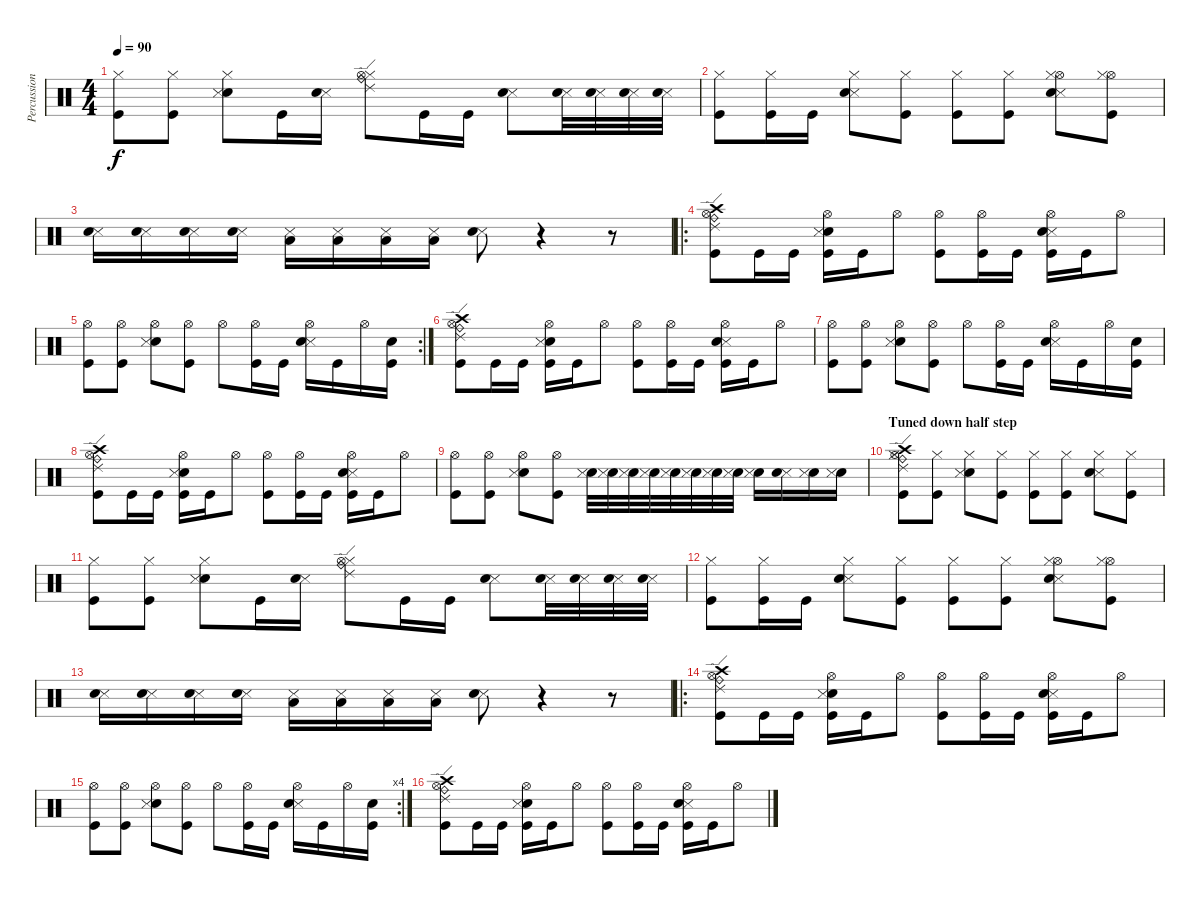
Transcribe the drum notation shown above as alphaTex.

\track ("Percussion" "Percussion") {instrument percussion}
\staff {score}
\articulation defaults
\ts (4 4)
\tempo 90
\clef neutral
\ks c
("Hi-Hat (closed)" "Kick (hit)").8{dy f} ("Hi-Hat (closed)" "Kick (hit)").8 ("Hi-Hat (closed)" "Electric Snare (hit)" "Snare (side stick) 3").8 "Kick (hit)".16 ("Snare (side stick) 3" "Electric Snare (hit)").16 ("Hi-Hat (closed)" "Hi-Hat (open)" "Ride (bell)" "Ride (edge) 2").8 "Kick (hit)".16 "Kick (hit)".16 ("Snare (side stick) 3" "Electric Snare (hit)").8 ("Snare (side stick) 3" "Electric Snare (hit)").32 ("Snare (side stick) 3" "Electric Snare (hit)").32 ("Snare (side stick) 3" "Electric Snare (hit)").32 ("Snare (side stick) 3" "Electric Snare (hit)").32 |
("Kick (hit)" "Hi-Hat (closed)").8 ("Kick (hit)" "Hi-Hat (closed)").16 "Kick (hit)".16 ("Snare (side stick) 3" "Electric Snare (hit)" "Hi-Hat (closed)").8 ("Kick (hit)" "Hi-Hat (closed)").8 ("Kick (hit)" "Hi-Hat (closed)").8 ("Kick (hit)" "Hi-Hat (closed)").8 ("Hi-Hat (open)" "Snare (side stick) 3" "Electric Snare (hit)" "Hi-Hat (closed)").8 ("Kick (hit)" "Hi-Hat (open)" "Hi-Hat (closed)").8 |
("Snare (side stick) 3" "Electric Snare (hit)").16 ("Snare (side stick) 3" "Electric Snare (hit)").16 ("Snare (side stick) 3" "Electric Snare (hit)").16 ("Snare (side stick) 3" "Electric Snare (hit)").16 ("Snare (side stick) 3" "Low Floor Tom (hit)").16 ("Snare (side stick) 3" "Low Floor Tom (hit)").16 ("Snare (side stick) 3" "Low Floor Tom (hit)").16 ("Snare (side stick) 3" "Low Floor Tom (hit)").16 ("Snare (side stick) 3" "Electric Snare (hit)").8 r.4 r.8 |
\ro
("Crash high (hit)" "Ride (edge) 2" "Kick (hit)" "Hi-Hat (open)" "Ride (bell)").8 "Kick (hit)".16 "Kick (hit)".16 ("Electric Snare (hit)" "Snare (side stick) 3" "Kick (hit)" "Hi-Hat (open)").16 "Kick (hit)".16 "Hi-Hat (open)".8 ("Kick (hit)" "Hi-Hat (open)").8 ("Kick (hit)" "Hi-Hat (open)").16 "Kick (hit)".16 ("Snare (side stick) 3" "Electric Snare (hit)" "Kick (hit)" "Hi-Hat (open)").16 "Kick (hit)".16 "Hi-Hat (open)".8 |
\rc 2
("Kick (hit)" "Hi-Hat (open)").8 ("Kick (hit)" "Hi-Hat (open)").8 ("Electric Snare (hit)" "Snare (side stick) 3" "Hi-Hat (open)").8 ("Kick (hit)" "Hi-Hat (open)").8 "Hi-Hat (open)".8 ("Kick (hit)" "Hi-Hat (open)").16 "Kick (hit)".16 ("Snare (side stick) 3" "Electric Snare (hit)" "Hi-Hat (open)").16 "Kick (hit)".16 "Hi-Hat (open)".16 ("Kick (hit)" "Electric Snare (hit)").16 |
("Crash high (hit)" "Ride (edge) 2" "Kick (hit)" "Hi-Hat (open)" "Ride (bell)").8 "Kick (hit)".16 "Kick (hit)".16 ("Electric Snare (hit)" "Snare (side stick) 3" "Kick (hit)" "Hi-Hat (open)").16 "Kick (hit)".16 "Hi-Hat (open)".8 ("Kick (hit)" "Hi-Hat (open)").8 ("Kick (hit)" "Hi-Hat (open)").16 "Kick (hit)".16 ("Snare (side stick) 3" "Electric Snare (hit)" "Kick (hit)" "Hi-Hat (open)").16 "Kick (hit)".16 "Hi-Hat (open)".8 |
("Kick (hit)" "Hi-Hat (open)").8 ("Kick (hit)" "Hi-Hat (open)").8 ("Electric Snare (hit)" "Snare (side stick) 3" "Hi-Hat (open)").8 ("Kick (hit)" "Hi-Hat (open)").8 "Hi-Hat (open)".8 ("Kick (hit)" "Hi-Hat (open)").16 "Kick (hit)".16 ("Snare (side stick) 3" "Electric Snare (hit)" "Hi-Hat (open)").16 "Kick (hit)".16 "Hi-Hat (open)".16 ("Kick (hit)" "Electric Snare (hit)").16 |
("Crash high (hit)" "Ride (edge) 2" "Kick (hit)" "Hi-Hat (open)" "Ride (bell)").8 "Kick (hit)".16 "Kick (hit)".16 ("Electric Snare (hit)" "Snare (side stick) 3" "Kick (hit)" "Hi-Hat (open)").16 "Kick (hit)".16 "Hi-Hat (open)".8 ("Kick (hit)" "Hi-Hat (open)").8 ("Kick (hit)" "Hi-Hat (open)").16 "Kick (hit)".16 ("Snare (side stick) 3" "Electric Snare (hit)" "Kick (hit)" "Hi-Hat (open)").16 "Kick (hit)".16 "Hi-Hat (open)".8 |
("Kick (hit)" "Hi-Hat (open)").8 ("Kick (hit)" "Hi-Hat (open)").8 ("Electric Snare (hit)" "Snare (side stick) 3" "Hi-Hat (open)").8 ("Kick (hit)" "Hi-Hat (open)").8 ("Electric Snare (hit)" "Snare (side stick) 3").32 ("Electric Snare (hit)" "Snare (side stick) 3").32 ("Electric Snare (hit)" "Snare (side stick) 3").32 ("Electric Snare (hit)" "Snare (side stick) 3").32 ("Electric Snare (hit)" "Snare (side stick) 3").32 ("Electric Snare (hit)" "Snare (side stick) 3").32 ("Electric Snare (hit)" "Snare (side stick) 3").32 ("Electric Snare (hit)" "Snare (side stick) 3").32 ("Electric Snare (hit)" "Snare (side stick) 3").16 ("Snare (side stick) 3" "Electric Snare (hit)").16 ("Electric Snare (hit)" "Snare (side stick) 3").16 ("Electric Snare (hit)" "Snare (side stick) 3").16 |
\section ("" "Tuned down half step")
("Kick (hit)" "Hi-Hat (closed)" "Hi-Hat (open)" "Crash high (hit)" "Ride (bell)" "Ride (edge) 2").8 ("Hi-Hat (closed)" "Kick (hit)").8 ("Hi-Hat (closed)" "Electric Snare (hit)" "Snare (side stick) 3").8 ("Hi-Hat (closed)" "Kick (hit)").8 ("Hi-Hat (closed)" "Kick (hit)").8 ("Kick (hit)" "Hi-Hat (closed)").8 ("Hi-Hat (closed)" "Snare (side stick) 3" "Electric Snare (hit)").8 ("Hi-Hat (closed)" "Kick (hit)").8 |
("Hi-Hat (closed)" "Kick (hit)").8 ("Hi-Hat (closed)" "Kick (hit)").8 ("Hi-Hat (closed)" "Electric Snare (hit)" "Snare (side stick) 3").8 "Kick (hit)".16 ("Snare (side stick) 3" "Electric Snare (hit)").16 ("Hi-Hat (closed)" "Hi-Hat (open)" "Ride (bell)" "Ride (edge) 2").8 "Kick (hit)".16 "Kick (hit)".16 ("Snare (side stick) 3" "Electric Snare (hit)").8 ("Snare (side stick) 3" "Electric Snare (hit)").32 ("Snare (side stick) 3" "Electric Snare (hit)").32 ("Snare (side stick) 3" "Electric Snare (hit)").32 ("Snare (side stick) 3" "Electric Snare (hit)").32 |
("Kick (hit)" "Hi-Hat (closed)").8 ("Kick (hit)" "Hi-Hat (closed)").16 "Kick (hit)".16 ("Snare (side stick) 3" "Electric Snare (hit)" "Hi-Hat (closed)").8 ("Kick (hit)" "Hi-Hat (closed)").8 ("Kick (hit)" "Hi-Hat (closed)").8 ("Kick (hit)" "Hi-Hat (closed)").8 ("Hi-Hat (open)" "Snare (side stick) 3" "Electric Snare (hit)" "Hi-Hat (closed)").8 ("Kick (hit)" "Hi-Hat (open)" "Hi-Hat (closed)").8 |
("Snare (side stick) 3" "Electric Snare (hit)").16 ("Snare (side stick) 3" "Electric Snare (hit)").16 ("Snare (side stick) 3" "Electric Snare (hit)").16 ("Snare (side stick) 3" "Electric Snare (hit)").16 ("Snare (side stick) 3" "Low Floor Tom (hit)").16 ("Snare (side stick) 3" "Low Floor Tom (hit)").16 ("Snare (side stick) 3" "Low Floor Tom (hit)").16 ("Snare (side stick) 3" "Low Floor Tom (hit)").16 ("Snare (side stick) 3" "Electric Snare (hit)").8 r.4 r.8 |
\ro
("Crash high (hit)" "Ride (edge) 2" "Kick (hit)" "Hi-Hat (open)" "Ride (bell)").8 "Kick (hit)".16 "Kick (hit)".16 ("Electric Snare (hit)" "Snare (side stick) 3" "Kick (hit)" "Hi-Hat (open)").16 "Kick (hit)".16 "Hi-Hat (open)".8 ("Kick (hit)" "Hi-Hat (open)").8 ("Kick (hit)" "Hi-Hat (open)").16 "Kick (hit)".16 ("Snare (side stick) 3" "Electric Snare (hit)" "Kick (hit)" "Hi-Hat (open)").16 "Kick (hit)".16 "Hi-Hat (open)".8 |
\rc 4
("Kick (hit)" "Hi-Hat (open)").8 ("Kick (hit)" "Hi-Hat (open)").8 ("Electric Snare (hit)" "Snare (side stick) 3" "Hi-Hat (open)").8 ("Kick (hit)" "Hi-Hat (open)").8 "Hi-Hat (open)".8 ("Kick (hit)" "Hi-Hat (open)").16 "Kick (hit)".16 ("Snare (side stick) 3" "Electric Snare (hit)" "Hi-Hat (open)").16 "Kick (hit)".16 "Hi-Hat (open)".16 ("Kick (hit)" "Electric Snare (hit)").16 |
("Crash high (hit)" "Ride (edge) 2" "Kick (hit)" "Hi-Hat (open)" "Ride (bell)").8 "Kick (hit)".16 "Kick (hit)".16 ("Electric Snare (hit)" "Snare (side stick) 3" "Kick (hit)" "Hi-Hat (open)").16 "Kick (hit)".16 "Hi-Hat (open)".8 ("Kick (hit)" "Hi-Hat (open)").8 ("Kick (hit)" "Hi-Hat (open)").16 "Kick (hit)".16 ("Snare (side stick) 3" "Electric Snare (hit)" "Kick (hit)" "Hi-Hat (open)").16 "Kick (hit)".16 "Hi-Hat (open)".8
